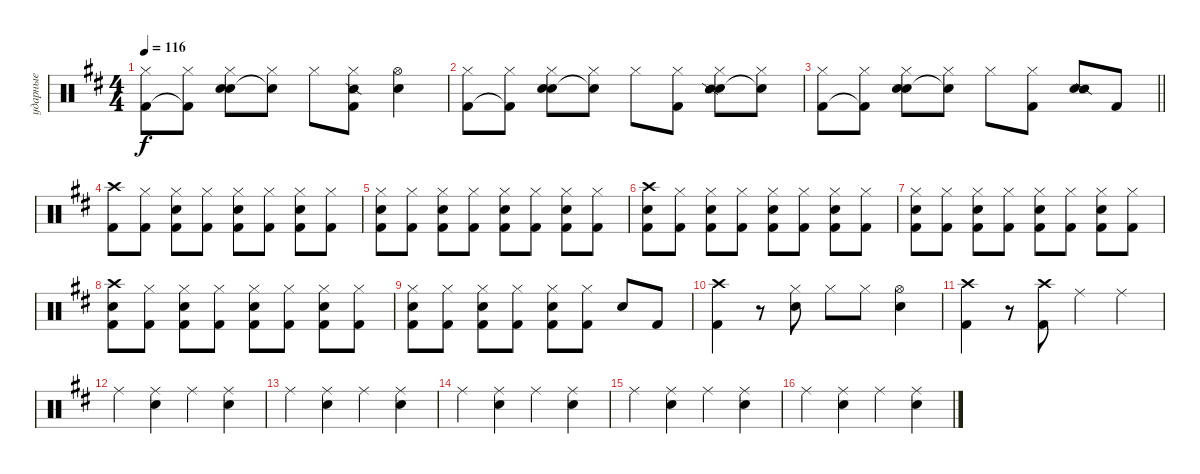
\track ("ударные" "ударные") {instrument percussion}
\staff {score}
\articulation defaults
\ts (4 4)
\tempo 116
\clef neutral
\ks d
("Hi-Hat (closed)" "Kick (hit) 2").8{dy f} ("Hi-Hat (closed)" "Kick (hit) 2"{t}).8 ("Hi-Hat (closed)" "Snare (hit) 2" "Hand Clap (hit)").8 ("Hi-Hat (closed)" "Snare (hit) 2"{t}).8 "Hi-Hat (closed)".8 ("Hi-Hat (closed)" "Kick (hit) 2" "Snare (side stick) 2").8 ("Hi-Hat (open)" "Snare (hit) 2").4 |
("Hi-Hat (closed)" "Kick (hit) 2").8 ("Hi-Hat (closed)" "Kick (hit) 2"{t}).8 ("Hi-Hat (closed)" "Snare (hit) 2" "Hand Clap (hit)").8 ("Hi-Hat (closed)" "Snare (hit) 2"{t}).8 "Hi-Hat (closed)".8 ("Hi-Hat (closed)" "Kick (hit) 2").8 ("Hi-Hat (closed)" "Snare (hit) 2" "Snare (side stick) 2").8 ("Hi-Hat (closed)" "Snare (hit) 2"{t}).8 |
\barLineRight lightlight
("Hi-Hat (closed)" "Kick (hit) 2").8 ("Hi-Hat (closed)" "Kick (hit) 2"{t}).8 ("Hi-Hat (closed)" "Snare (hit) 2" "Hand Clap (hit)").8 ("Hi-Hat (closed)" "Snare (hit) 2"{t}).8 "Hi-Hat (closed)".8 ("Hi-Hat (closed)" "Kick (hit) 2").8 ("Snare (hit) 2" "Snare (side stick) 2").8 "Kick (hit) 2".8 |
("Crash high (hit)" "Kick (hit) 2").8 ("Hi-Hat (closed)" "Kick (hit) 2").8 ("Hi-Hat (closed)" "Snare (hit) 2" "Kick (hit) 2").8 ("Hi-Hat (closed)" "Kick (hit) 2").8 ("Hi-Hat (closed)" "Snare (hit) 2" "Kick (hit) 2").8 ("Hi-Hat (closed)" "Kick (hit) 2").8 ("Hi-Hat (closed)" "Snare (hit) 2" "Kick (hit) 2").8 ("Hi-Hat (closed)" "Kick (hit) 2").8 |
("Hi-Hat (closed)" "Snare (hit) 2" "Kick (hit) 2").8 ("Hi-Hat (closed)" "Kick (hit) 2").8 ("Hi-Hat (closed)" "Snare (hit) 2" "Kick (hit) 2").8 ("Hi-Hat (closed)" "Kick (hit) 2").8 ("Hi-Hat (closed)" "Snare (hit) 2" "Kick (hit) 2").8 ("Hi-Hat (closed)" "Kick (hit) 2").8 ("Hi-Hat (closed)" "Snare (hit) 2" "Kick (hit) 2").8 ("Hi-Hat (closed)" "Kick (hit) 2").8 |
("Crash high (hit)" "Snare (hit) 2" "Kick (hit) 2").8 ("Hi-Hat (closed)" "Kick (hit) 2").8 ("Hi-Hat (closed)" "Snare (hit) 2" "Kick (hit) 2").8 ("Hi-Hat (closed)" "Kick (hit) 2").8 ("Hi-Hat (closed)" "Snare (hit) 2" "Kick (hit) 2").8 ("Hi-Hat (closed)" "Kick (hit) 2").8 ("Hi-Hat (closed)" "Snare (hit) 2" "Kick (hit) 2").8 ("Hi-Hat (closed)" "Kick (hit) 2").8 |
("Hi-Hat (closed)" "Snare (hit) 2" "Kick (hit) 2").8 ("Hi-Hat (closed)" "Kick (hit) 2").8 ("Hi-Hat (closed)" "Snare (hit) 2" "Kick (hit) 2").8 ("Hi-Hat (closed)" "Kick (hit) 2").8 ("Hi-Hat (closed)" "Snare (hit) 2" "Kick (hit) 2").8 ("Hi-Hat (closed)" "Kick (hit) 2").8 ("Hi-Hat (closed)" "Snare (hit) 2" "Kick (hit) 2").8 ("Hi-Hat (closed)" "Kick (hit) 2").8 |
("Crash high (hit)" "Snare (hit) 2" "Kick (hit) 2").8 ("Hi-Hat (closed)" "Kick (hit) 2").8 ("Hi-Hat (closed)" "Snare (hit) 2" "Kick (hit) 2").8 ("Hi-Hat (closed)" "Kick (hit) 2").8 ("Hi-Hat (closed)" "Snare (hit) 2" "Kick (hit) 2").8 ("Hi-Hat (closed)" "Kick (hit) 2").8 ("Hi-Hat (closed)" "Snare (hit) 2" "Kick (hit) 2").8 ("Hi-Hat (closed)" "Kick (hit) 2").8 |
("Hi-Hat (closed)" "Snare (hit) 2" "Kick (hit) 2").8 ("Hi-Hat (closed)" "Kick (hit) 2").8 ("Hi-Hat (closed)" "Snare (hit) 2" "Kick (hit) 2").8 ("Hi-Hat (closed)" "Kick (hit) 2").8 ("Hi-Hat (closed)" "Snare (hit) 2" "Kick (hit) 2").8 ("Hi-Hat (closed)" "Kick (hit) 2").8 "Snare (hit) 2".8 "Kick (hit) 2".8 |
("Crash high (hit)" "Kick (hit) 2").4 r.8 ("Hi-Hat (closed)" "Snare (hit) 2").8 "Hi-Hat (closed)".8 "Hi-Hat (closed)".8 ("Hi-Hat (open)" "Snare (hit) 2").4 |
("Crash high (hit)" "Kick (hit) 2").4 r.8 ("Crash high (hit)" "Kick (hit) 2").8 "Ride (middle)".4 "Ride (middle)".4 |
"Ride (middle)".4 ("Ride (middle)" "Hand Clap (hit)").4 "Ride (middle)".4 ("Ride (middle)" "Hand Clap (hit)").4 |
"Ride (middle)".4 ("Ride (middle)" "Hand Clap (hit)").4 "Ride (middle)".4 ("Ride (middle)" "Hand Clap (hit)").4 |
"Ride (middle)".4 ("Ride (middle)" "Hand Clap (hit)").4 "Ride (middle)".4 ("Ride (middle)" "Hand Clap (hit)").4 |
"Ride (middle)".4 ("Ride (middle)" "Hand Clap (hit)").4 "Ride (middle)".4 ("Ride (middle)" "Hand Clap (hit)").4 |
"Ride (middle)".4 ("Ride (middle)" "Hand Clap (hit)").4 "Ride (middle)".4 ("Ride (middle)" "Hand Clap (hit)").4
